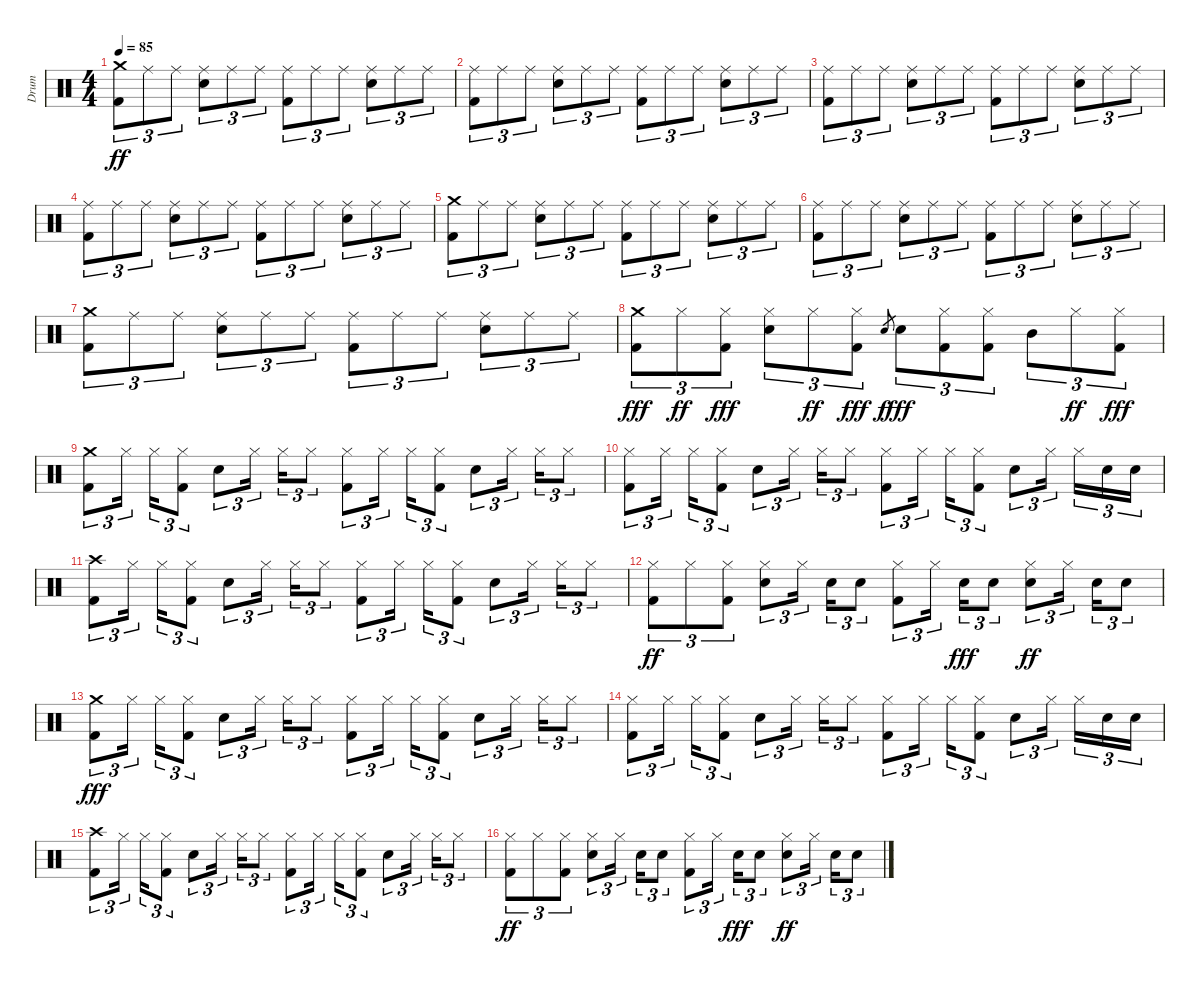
\track ("Drum" "Drum") {instrument percussion}
\staff {score}
\articulation defaults
\ts (4 4)
\tempo 85
\clef neutral
\ks c
("Crash medium (hit)" "Kick (hit) 2").8{tu (3 2) dy ff} "Ride (middle)".8{tu (3 2)} "Ride (middle)".8{tu (3 2)} ("Ride (middle)" "Snare (hit) 2").8{tu (3 2)} "Ride (middle)".8{tu (3 2)} "Ride (middle)".8{tu (3 2)} ("Ride (middle)" "Kick (hit) 2").8{tu (3 2)} "Ride (middle)".8{tu (3 2)} "Ride (middle)".8{tu (3 2)} ("Ride (middle)" "Snare (hit) 2").8{tu (3 2)} "Ride (middle)".8{tu (3 2)} "Ride (middle)".8{tu (3 2)} |
("Ride (middle)" "Kick (hit) 2").8{tu (3 2)} "Ride (middle)".8{tu (3 2)} "Ride (middle)".8{tu (3 2)} ("Ride (middle)" "Snare (hit) 2").8{tu (3 2)} "Ride (middle)".8{tu (3 2)} "Ride (middle)".8{tu (3 2)} ("Ride (middle)" "Kick (hit) 2").8{tu (3 2)} "Ride (middle)".8{tu (3 2)} "Ride (middle)".8{tu (3 2)} ("Ride (middle)" "Snare (hit) 2").8{tu (3 2)} "Ride (middle)".8{tu (3 2)} "Ride (middle)".8{tu (3 2)} |
("Ride (middle)" "Kick (hit) 2").8{tu (3 2)} "Ride (middle)".8{tu (3 2)} "Ride (middle)".8{tu (3 2)} ("Ride (middle)" "Snare (hit) 2").8{tu (3 2)} "Ride (middle)".8{tu (3 2)} "Ride (middle)".8{tu (3 2)} ("Ride (middle)" "Kick (hit) 2").8{tu (3 2)} "Ride (middle)".8{tu (3 2)} "Ride (middle)".8{tu (3 2)} ("Ride (middle)" "Snare (hit) 2").8{tu (3 2)} "Ride (middle)".8{tu (3 2)} "Ride (middle)".8{tu (3 2)} |
("Ride (middle)" "Kick (hit) 2").8{tu (3 2)} "Ride (middle)".8{tu (3 2)} "Ride (middle)".8{tu (3 2)} ("Ride (middle)" "Snare (hit) 2").8{tu (3 2)} "Ride (middle)".8{tu (3 2)} "Ride (middle)".8{tu (3 2)} ("Ride (middle)" "Kick (hit) 2").8{tu (3 2)} "Ride (middle)".8{tu (3 2)} "Ride (middle)".8{tu (3 2)} ("Ride (middle)" "Snare (hit) 2").8{tu (3 2)} "Ride (middle)".8{tu (3 2)} "Ride (middle)".8{tu (3 2)} |
("Crash medium (hit)" "Kick (hit) 2").8{tu (3 2)} "Ride (middle)".8{tu (3 2)} "Ride (middle)".8{tu (3 2)} ("Ride (middle)" "Snare (hit) 2").8{tu (3 2)} "Ride (middle)".8{tu (3 2)} "Ride (middle)".8{tu (3 2)} ("Ride (middle)" "Kick (hit) 2").8{tu (3 2)} "Ride (middle)".8{tu (3 2)} "Ride (middle)".8{tu (3 2)} ("Ride (middle)" "Snare (hit) 2").8{tu (3 2)} "Ride (middle)".8{tu (3 2)} "Ride (middle)".8{tu (3 2)} |
("Ride (middle)" "Kick (hit) 2").8{tu (3 2)} "Ride (middle)".8{tu (3 2)} "Ride (middle)".8{tu (3 2)} ("Ride (middle)" "Snare (hit) 2").8{tu (3 2)} "Ride (middle)".8{tu (3 2)} "Ride (middle)".8{tu (3 2)} ("Ride (middle)" "Kick (hit) 2").8{tu (3 2)} "Ride (middle)".8{tu (3 2)} "Ride (middle)".8{tu (3 2)} ("Ride (middle)" "Snare (hit) 2").8{tu (3 2)} "Ride (middle)".8{tu (3 2)} "Ride (middle)".8{tu (3 2)} |
("Crash medium (hit)" "Kick (hit) 2").8{tu (3 2)} "Ride (middle)".8{tu (3 2)} "Ride (middle)".8{tu (3 2)} ("Ride (middle)" "Snare (hit) 2").8{tu (3 2)} "Ride (middle)".8{tu (3 2)} "Ride (middle)".8{tu (3 2)} ("Ride (middle)" "Kick (hit) 2").8{tu (3 2)} "Ride (middle)".8{tu (3 2)} "Ride (middle)".8{tu (3 2)} ("Ride (middle)" "Snare (hit) 2").8{tu (3 2)} "Ride (middle)".8{tu (3 2)} "Ride (middle)".8{tu (3 2)} |
("Crash medium (hit)" "Kick (hit) 2").8{tu (3 2) dy fff} "Hi-Hat (closed)".8{tu (3 2) dy ff} ("Hi-Hat (closed)" "Kick (hit) 2").8{tu (3 2) dy fff} ("Hi-Hat (closed)" "Snare (hit) 2").8{tu (3 2)} "Hi-Hat (closed)".8{tu (3 2) dy ff} ("Hi-Hat (closed)" "Kick (hit) 2").8{tu (3 2) dy fff} "Snare (hit) 2".8{gr dy f} "Snare (hit) 2".8{tu (3 2) dy fff} ("Hi-Hat (closed)" "Kick (hit) 2").8{tu (3 2)} ("Hi-Hat (closed)" "Kick (hit) 2").8{tu (3 2)} "Mid Tom (hit)".8{tu (3 2)} "Hi-Hat (closed)".8{tu (3 2) dy ff} ("Hi-Hat (closed)" "Kick (hit) 2").8{tu (3 2) dy fff} |
("Crash medium (hit)" "Kick (hit) 2").8{tu (3 2)} "Hi-Hat (closed)".16{tu (3 2)} "Hi-Hat (closed)".16{tu (3 2)} ("Hi-Hat (closed)" "Kick (hit) 2").8{tu (3 2)} "Snare (hit) 2".8{tu (3 2)} "Hi-Hat (closed)".16{tu (3 2)} "Hi-Hat (closed)".16{tu (3 2)} "Hi-Hat (closed)".8{tu (3 2)} ("Hi-Hat (closed)" "Kick (hit) 2").8{tu (3 2)} "Hi-Hat (closed)".16{tu (3 2)} "Hi-Hat (closed)".16{tu (3 2)} ("Hi-Hat (closed)" "Kick (hit) 2").8{tu (3 2)} "Snare (hit) 2".8{tu (3 2)} "Hi-Hat (closed)".16{tu (3 2)} "Hi-Hat (closed)".16{tu (3 2)} "Hi-Hat (closed)".8{tu (3 2)} |
("Hi-Hat (closed)" "Kick (hit) 2").8{tu (3 2)} "Hi-Hat (closed)".16{tu (3 2)} "Hi-Hat (closed)".16{tu (3 2)} ("Hi-Hat (closed)" "Kick (hit) 2").8{tu (3 2)} "Snare (hit) 2".8{tu (3 2)} "Hi-Hat (closed)".16{tu (3 2)} "Hi-Hat (closed)".16{tu (3 2)} "Hi-Hat (closed)".8{tu (3 2)} ("Hi-Hat (closed)" "Kick (hit) 2").8{tu (3 2)} "Hi-Hat (closed)".16{tu (3 2)} "Hi-Hat (closed)".16{tu (3 2)} ("Hi-Hat (closed)" "Kick (hit) 2").8{tu (3 2)} "Snare (hit) 2".8{tu (3 2)} "Hi-Hat (closed)".16{tu (3 2)} "Hi-Hat (closed)".16{tu (3 2)} "Snare (hit) 2".16{tu (3 2)} "Snare (hit) 2".16{tu (3 2)} |
("Crash high (hit)" "Kick (hit) 2").8{tu (3 2)} "Hi-Hat (closed)".16{tu (3 2)} "Hi-Hat (closed)".16{tu (3 2)} ("Hi-Hat (closed)" "Kick (hit) 2").8{tu (3 2)} "Snare (hit) 2".8{tu (3 2)} "Hi-Hat (closed)".16{tu (3 2)} "Hi-Hat (closed)".16{tu (3 2)} "Hi-Hat (closed)".8{tu (3 2)} ("Hi-Hat (closed)" "Kick (hit) 2").8{tu (3 2)} "Hi-Hat (closed)".16{tu (3 2)} "Hi-Hat (closed)".16{tu (3 2)} ("Hi-Hat (closed)" "Kick (hit) 2").8{tu (3 2)} "Snare (hit) 2".8{tu (3 2)} "Hi-Hat (closed)".16{tu (3 2)} "Hi-Hat (closed)".16{tu (3 2)} "Hi-Hat (closed)".8{tu (3 2)} |
("Hi-Hat (closed)" "Kick (hit) 2").8{tu (3 2) dy ff} "Hi-Hat (closed)".8{tu (3 2)} ("Hi-Hat (closed)" "Kick (hit) 2").8{tu (3 2)} ("Hi-Hat (closed)" "Snare (hit) 2").8{tu (3 2)} "Hi-Hat (closed)".16{tu (3 2)} "Snare (hit) 2".16{tu (3 2)} "Snare (hit) 2".8{tu (3 2)} ("Hi-Hat (closed)" "Kick (hit) 2").8{tu (3 2)} "Hi-Hat (closed)".16{tu (3 2)} "Snare (hit) 2".16{tu (3 2) dy fff} "Snare (hit) 2".8{tu (3 2)} ("Hi-Hat (closed)" "Snare (hit) 2").8{tu (3 2) dy ff} "Hi-Hat (closed)".16{tu (3 2)} "Snare (hit) 2".16{tu (3 2)} "Snare (hit) 2".8{tu (3 2)} |
("Crash medium (hit)" "Kick (hit) 2").8{tu (3 2) dy fff} "Hi-Hat (closed)".16{tu (3 2)} "Hi-Hat (closed)".16{tu (3 2)} ("Hi-Hat (closed)" "Kick (hit) 2").8{tu (3 2)} "Snare (hit) 2".8{tu (3 2)} "Hi-Hat (closed)".16{tu (3 2)} "Hi-Hat (closed)".16{tu (3 2)} "Hi-Hat (closed)".8{tu (3 2)} ("Hi-Hat (closed)" "Kick (hit) 2").8{tu (3 2)} "Hi-Hat (closed)".16{tu (3 2)} "Hi-Hat (closed)".16{tu (3 2)} ("Hi-Hat (closed)" "Kick (hit) 2").8{tu (3 2)} "Snare (hit) 2".8{tu (3 2)} "Hi-Hat (closed)".16{tu (3 2)} "Hi-Hat (closed)".16{tu (3 2)} "Hi-Hat (closed)".8{tu (3 2)} |
("Hi-Hat (closed)" "Kick (hit) 2").8{tu (3 2)} "Hi-Hat (closed)".16{tu (3 2)} "Hi-Hat (closed)".16{tu (3 2)} ("Hi-Hat (closed)" "Kick (hit) 2").8{tu (3 2)} "Snare (hit) 2".8{tu (3 2)} "Hi-Hat (closed)".16{tu (3 2)} "Hi-Hat (closed)".16{tu (3 2)} "Hi-Hat (closed)".8{tu (3 2)} ("Hi-Hat (closed)" "Kick (hit) 2").8{tu (3 2)} "Hi-Hat (closed)".16{tu (3 2)} "Hi-Hat (closed)".16{tu (3 2)} ("Hi-Hat (closed)" "Kick (hit) 2").8{tu (3 2)} "Snare (hit) 2".8{tu (3 2)} "Hi-Hat (closed)".16{tu (3 2)} "Hi-Hat (closed)".16{tu (3 2)} "Snare (hit) 2".16{tu (3 2)} "Snare (hit) 2".16{tu (3 2)} |
("Crash high (hit)" "Kick (hit) 2").8{tu (3 2)} "Hi-Hat (closed)".16{tu (3 2)} "Hi-Hat (closed)".16{tu (3 2)} ("Hi-Hat (closed)" "Kick (hit) 2").8{tu (3 2)} "Snare (hit) 2".8{tu (3 2)} "Hi-Hat (closed)".16{tu (3 2)} "Hi-Hat (closed)".16{tu (3 2)} "Hi-Hat (closed)".8{tu (3 2)} ("Hi-Hat (closed)" "Kick (hit) 2").8{tu (3 2)} "Hi-Hat (closed)".16{tu (3 2)} "Hi-Hat (closed)".16{tu (3 2)} ("Hi-Hat (closed)" "Kick (hit) 2").8{tu (3 2)} "Snare (hit) 2".8{tu (3 2)} "Hi-Hat (closed)".16{tu (3 2)} "Hi-Hat (closed)".16{tu (3 2)} "Hi-Hat (closed)".8{tu (3 2)} |
("Hi-Hat (closed)" "Kick (hit) 2").8{tu (3 2) dy ff} "Hi-Hat (closed)".8{tu (3 2)} ("Hi-Hat (closed)" "Kick (hit) 2").8{tu (3 2)} ("Hi-Hat (closed)" "Snare (hit) 2").8{tu (3 2)} "Hi-Hat (closed)".16{tu (3 2)} "Snare (hit) 2".16{tu (3 2)} "Snare (hit) 2".8{tu (3 2)} ("Hi-Hat (closed)" "Kick (hit) 2").8{tu (3 2)} "Hi-Hat (closed)".16{tu (3 2)} "Snare (hit) 2".16{tu (3 2) dy fff} "Snare (hit) 2".8{tu (3 2)} ("Hi-Hat (closed)" "Snare (hit) 2").8{tu (3 2) dy ff} "Hi-Hat (closed)".16{tu (3 2)} "Snare (hit) 2".16{tu (3 2)} "Snare (hit) 2".8{tu (3 2)}
